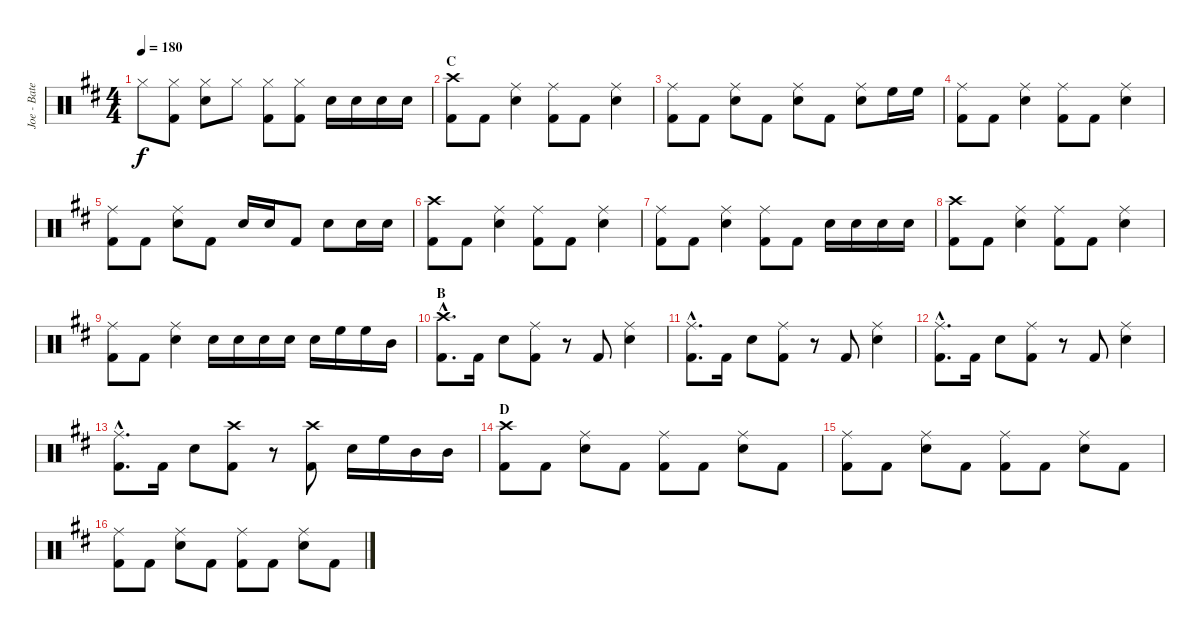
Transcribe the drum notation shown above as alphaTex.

\track ("Joe - Batería -" "Joe - Bate") {instrument percussion}
\staff {score}
\articulation defaults
\ts (4 4)
\tempo 180
\clef neutral
\ks bminor "Hi-Hat (closed)".8{dy f}
("Hi-Hat (closed)" "Kick (hit) 2").8 ("Hi-Hat (closed)" "Snare (hit) 2").8 "Hi-Hat (closed)".8 ("Hi-Hat (closed)" "Kick (hit) 2").8 ("Hi-Hat (closed)" "Kick (hit) 2").8 "Snare (hit) 2".16 "Snare (hit) 2".16 "Snare (hit) 2".16 "Snare (hit) 2".16 |
\section ("" "C")
("Crash high (hit)" "Kick (hit) 2").8 "Kick (hit) 2".8 ("Ride (middle)" "Snare (hit) 2").4 ("Ride (middle)" "Kick (hit) 2").8 "Kick (hit) 2".8 ("Ride (middle)" "Snare (hit) 2").4 |
("Ride (middle)" "Kick (hit) 2").8 "Kick (hit) 2".8 ("Ride (middle)" "Snare (hit) 2").8 "Kick (hit) 2".8 ("Ride (middle)" "Snare (hit) 2").8 "Kick (hit) 2".8 ("Ride (middle)" "Snare (hit) 2").8 "High Floor Tom (hit)".16 "High Floor Tom (hit)".16 |
\section ("" "")
("Ride (middle)" "Kick (hit) 2").8 "Kick (hit) 2".8 ("Ride (middle)" "Snare (hit) 2").4 ("Ride (middle)" "Kick (hit) 2").8 "Kick (hit) 2".8 ("Ride (middle)" "Snare (hit) 2").4 |
("Ride (middle)" "Kick (hit) 2").8 "Kick (hit) 2".8 ("Ride (middle)" "Snare (hit) 2").8 "Kick (hit) 2".8 "Snare (hit) 2".16 "Snare (hit) 2".16 "Kick (hit) 2".8 "Snare (hit) 2".8 "Snare (hit) 2".16 "Snare (hit) 2".16 |
\section ("" "")
("Crash high (hit)" "Kick (hit) 2").8 "Kick (hit) 2".8 ("Ride (middle)" "Snare (hit) 2").4 ("Ride (middle)" "Kick (hit) 2").8 "Kick (hit) 2".8 ("Ride (middle)" "Snare (hit) 2").4 |
\section ("" "")
("Ride (middle)" "Kick (hit) 2").8 "Kick (hit) 2".8 ("Ride (middle)" "Snare (hit) 2").4 ("Ride (middle)" "Kick (hit) 2").8 "Kick (hit) 2".8 "Snare (hit) 2".16 "Snare (hit) 2".16 "Snare (hit) 2".16 "Snare (hit) 2".16 |
\section ("" "")
("Crash high (hit)" "Kick (hit) 2").8 "Kick (hit) 2".8 ("Ride (middle)" "Snare (hit) 2").4 ("Ride (middle)" "Kick (hit) 2").8 "Kick (hit) 2".8 ("Ride (middle)" "Snare (hit) 2").4 |
("Ride (middle)" "Kick (hit) 2").8 "Kick (hit) 2".8 ("Ride (middle)" "Snare (hit) 2").4 "Snare (hit) 2".16 "Snare (hit) 2".16 "Snare (hit) 2".16 "Snare (hit) 2".16 "Snare (hit) 2".16 "High Floor Tom (hit)".16 "High Floor Tom (hit)".16 "Mid Tom (hit)".16 |
\section ("" "B")
("Crash high (hit)"{hac} "Kick (hit) 2"{hac}).8{d} "Kick (hit) 2".16 "Snare (hit) 2".8 ("Ride (middle)" "Kick (hit) 2").8 r.8 "Kick (hit) 2".8 ("Ride (middle)" "Snare (hit) 2").4 |
("Ride (middle)"{hac} "Kick (hit) 2"{hac}).8{d} "Kick (hit) 2".16 "Snare (hit) 2".8 ("Ride (middle)" "Kick (hit) 2").8 r.8 "Kick (hit) 2".8 ("Ride (middle)" "Snare (hit) 2").4 |
("Ride (middle)"{hac} "Kick (hit) 2"{hac}).8{d} "Kick (hit) 2".16 "Snare (hit) 2".8 ("Ride (middle)" "Kick (hit) 2").8 r.8 "Kick (hit) 2".8 ("Ride (middle)" "Snare (hit) 2").4 |
("Ride (middle)"{hac} "Kick (hit) 2"{hac}).8{d} "Kick (hit) 2".16 "Snare (hit) 2".8 ("Crash high (hit)" "Kick (hit) 2").8 r.8 ("Crash high (hit)" "Kick (hit) 2").8 "Snare (hit) 2".16 "High Floor Tom (hit)".16 "Mid Tom (hit)".16 "Mid Tom (hit)".16 |
\section ("" "D")
("Crash high (hit)" "Kick (hit) 2").8 "Kick (hit) 2".8 ("Ride (middle)" "Snare (hit) 2").8 "Kick (hit) 2".8 ("Ride (middle)" "Kick (hit) 2").8 "Kick (hit) 2".8 ("Ride (middle)" "Snare (hit) 2").8 "Kick (hit) 2".8 |
("Ride (middle)" "Kick (hit) 2").8 "Kick (hit) 2".8 ("Ride (middle)" "Snare (hit) 2").8 "Kick (hit) 2".8 ("Ride (middle)" "Kick (hit) 2").8 "Kick (hit) 2".8 ("Ride (middle)" "Snare (hit) 2").8 "Kick (hit) 2".8 |
("Ride (middle)" "Kick (hit) 2").8 "Kick (hit) 2".8 ("Ride (middle)" "Snare (hit) 2").8 "Kick (hit) 2".8 ("Ride (middle)" "Kick (hit) 2").8 "Kick (hit) 2".8 ("Ride (middle)" "Snare (hit) 2").8 "Kick (hit) 2".8
